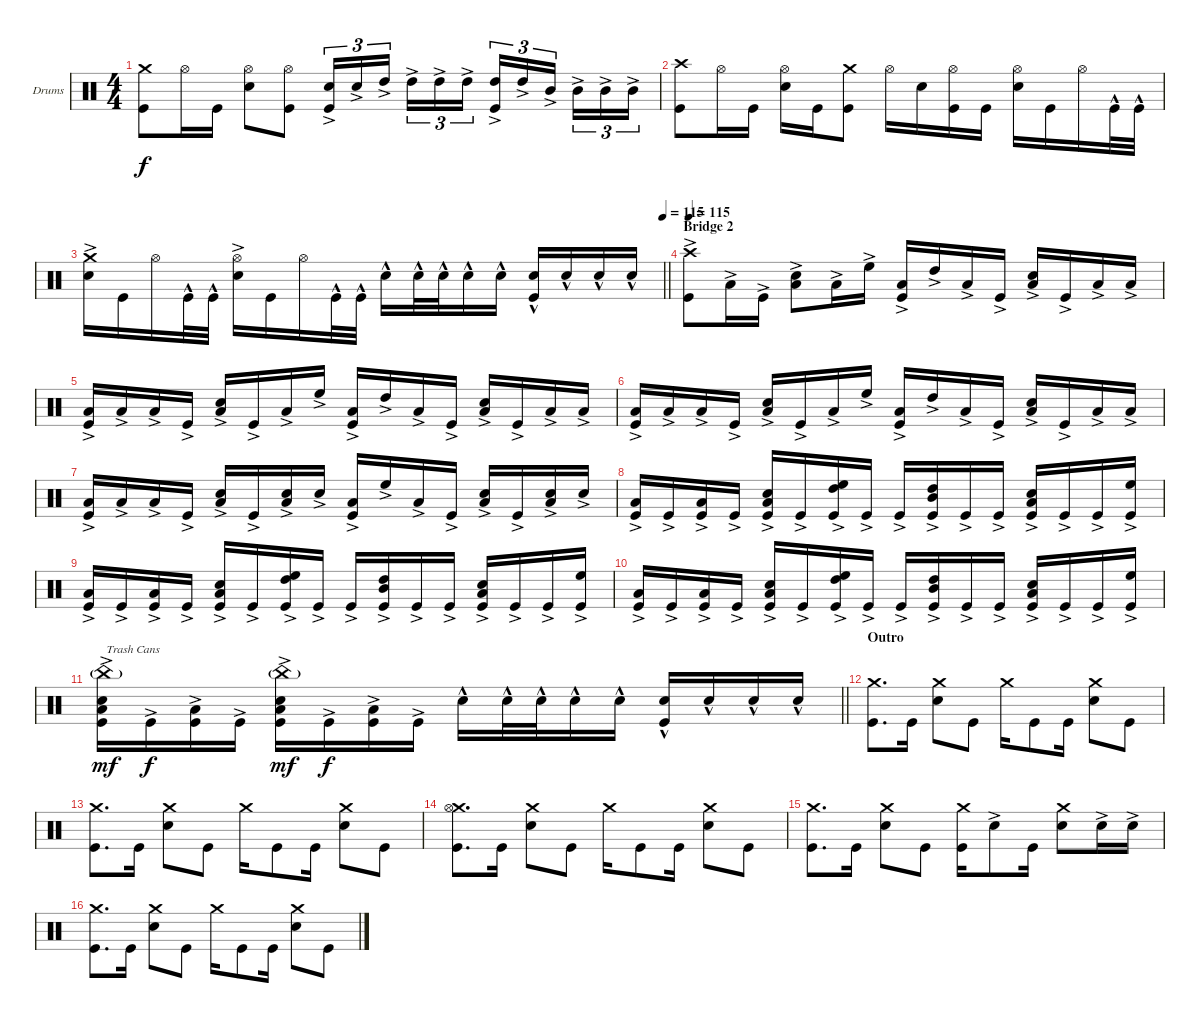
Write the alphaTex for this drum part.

\bracketExtendMode groupsimilarinstruments
\firstSystemTrackNameOrientation horizontal
\otherSystemsTrackNameOrientation horizontal
\track ("Drumkit" "Drums") {instrument percussion}
\staff {score}
\articulation defaults
\ts (4 4)
\tempo (105 hide)
\clef neutral
\ks c
("Crash medium (hit)" "Kick (hit)").8{dy f} "Hi-Hat (open)".16 "Kick (hit)".16 ("Hi-Hat (open)" "Snare (hit) 2").8 ("Hi-Hat (open)" "Kick (hit)").8 ("Snare (hit) 2"{ac} "Kick (hit)").16{tu (3 2)} "Snare (hit) 2"{ac}.16{tu (3 2)} "High Tom (hit)"{ac}.16{tu (3 2)} "High Tom (hit)"{ac}.16{tu (3 2)} "High Tom (hit)"{ac}.16{tu (3 2)} "High Tom (hit)"{ac}.16{tu (3 2)} ("High Tom (hit)"{ac} "Kick (hit)").16{tu (3 2)} "High Tom (hit)"{ac}.16{tu (3 2)} "Mid Tom (hit)"{ac}.16{tu (3 2)} "Mid Tom (hit)"{ac}.16{tu (3 2)} "Mid Tom (hit)"{ac}.16{tu (3 2)} "Mid Tom (hit)"{ac}.16{tu (3 2)} |
("Crash high (hit)" "Kick (hit)").8 "Hi-Hat (open)".16 "Kick (hit)".16 ("Hi-Hat (open)" "Snare (hit) 2").16 "Kick (hit)".16 ("Crash medium (hit)" "Kick (hit)").8 "Hi-Hat (open)".16 "Snare (hit) 2".16 ("Hi-Hat (open)" "Kick (hit)").16 "Kick (hit)".16 ("Hi-Hat (open)" "Snare (hit) 2").16 "Kick (hit)".16 "Hi-Hat (open)".16 "Kick (hit)"{hac}.32 "Kick (hit)"{hac}.32 |
\tempo (115 1)
\barLineRight lightlight
("Crash medium (hit)" "Snare (hit) 2"{ac}).16 "Kick (hit)".16 "Hi-Hat (open)".16 "Kick (hit)"{hac}.32 "Kick (hit)"{hac}.32 ("Hi-Hat (open)" "Snare (hit) 2"{ac}).16 "Kick (hit)".16 "Hi-Hat (open)".16 "Kick (hit)"{hac}.32 "Kick (hit)"{hac}.32 "Snare (hit) 2"{hac}.16 "Snare (hit) 2"{hac}.32 "Snare (hit) 2"{hac}.32 "Snare (hit) 2"{hac}.16 "Snare (hit) 2"{hac}.16 ("Snare (hit) 2"{hac} "Kick (hit)").16 "Snare (hit) 2"{hac}.16 "Snare (hit) 2"{hac}.16 "Snare (hit) 2"{hac}.16 |
\section ("" "Bridge 2")
\tempo 115
("Crash high (hit)"{ac} "Kick (hit)"{ac}).8 "Low Tom (hit)"{ac}.16 "Kick (hit)"{ac}.16 ("Snare (hit) 2"{ac} "Low Tom (hit)"{ac}).8 "Low Tom (hit)"{ac}.16 "High Floor Tom (hit)"{ac}.16 ("Low Tom (hit)"{ac} "Kick (hit)"{ac}).16 "High Tom (hit)"{ac}.16 "Low Tom (hit)"{ac}.16 "Kick (hit)"{ac}.16 ("Snare (hit) 2"{ac} "Low Tom (hit)"{ac}).16 "Kick (hit)"{ac}.16 "Low Tom (hit)"{ac}.16 "Low Tom (hit)"{ac}.16 |
("Low Tom (hit)"{ac} "Kick (hit)"{ac}).16 "Low Tom (hit)"{ac}.16 "Low Tom (hit)"{ac}.16 "Kick (hit)"{ac}.16 ("Snare (hit) 2"{ac} "Low Tom (hit)"{ac}).16 "Kick (hit)"{ac}.16 "Low Tom (hit)"{ac}.16 "High Floor Tom (hit)"{ac}.16 ("Low Tom (hit)"{ac} "Kick (hit)"{ac}).16 "High Tom (hit)"{ac}.16 "Low Tom (hit)"{ac}.16 "Kick (hit)"{ac}.16 ("Snare (hit) 2"{ac} "Low Tom (hit)"{ac}).16 "Kick (hit)"{ac}.16 "Low Tom (hit)"{ac}.16 "Low Tom (hit)"{ac}.16 |
("Low Tom (hit)"{ac} "Kick (hit)"{ac}).16 "Low Tom (hit)"{ac}.16 "Low Tom (hit)"{ac}.16 "Kick (hit)"{ac}.16 ("Snare (hit) 2"{ac} "Low Tom (hit)"{ac}).16 "Kick (hit)"{ac}.16 "Low Tom (hit)"{ac}.16 "High Floor Tom (hit)"{ac}.16 ("Low Tom (hit)"{ac} "Kick (hit)"{ac}).16 "High Tom (hit)"{ac}.16 "Low Tom (hit)"{ac}.16 "Kick (hit)"{ac}.16 ("Snare (hit) 2"{ac} "Low Tom (hit)"{ac}).16 "Kick (hit)"{ac}.16 "Low Tom (hit)"{ac}.16 "Low Tom (hit)"{ac}.16 |
("Low Tom (hit)"{ac} "Kick (hit)"{ac}).16 "Low Tom (hit)"{ac}.16 "Low Tom (hit)"{ac}.16 "Kick (hit)"{ac}.16 ("Snare (hit) 2"{ac} "Low Tom (hit)"{ac}).16 "Kick (hit)"{ac}.16 ("Snare (hit) 2"{ac} "Low Tom (hit)"{ac}).16 "Snare (hit) 2"{ac}.16 ("Low Tom (hit)"{ac} "Kick (hit)"{ac}).16 "High Floor Tom (hit)"{ac}.16 "Low Tom (hit)"{ac}.16 "Kick (hit)"{ac}.16 ("Snare (hit) 2"{ac} "Low Tom (hit)"{ac}).16 "Kick (hit)"{ac}.16 ("Snare (hit) 2"{ac} "Low Tom (hit)"{ac}).16 "Snare (hit) 2"{ac}.16 |
("Low Tom (hit)"{ac} "Kick (hit)"{ac}).16 "Kick (hit)"{ac}.16 ("Low Tom (hit)"{ac} "Kick (hit)"{ac}).16 "Kick (hit)"{ac}.16 ("Snare (hit) 2"{ac} "Low Tom (hit)"{ac} "Kick (hit)"{ac}).16 "Kick (hit)"{ac}.16 ("High Floor Tom (hit)"{ac} "High Tom (hit)"{ac} "Kick (hit)"{ac}).16 "Kick (hit)"{ac}.16 "Kick (hit)"{ac}.16 ("High Tom (hit)"{ac} "Mid Tom (hit)"{ac} "Kick (hit)"{ac}).16 "Kick (hit)"{ac}.16 "Kick (hit)"{ac}.16 ("Snare (hit) 2"{ac} "Low Tom (hit)"{ac} "Kick (hit)"{ac}).16 "Kick (hit)"{ac}.16 "Kick (hit)"{ac}.16 ("High Floor Tom (hit)"{ac} "Kick (hit)"{ac}).16 |
("Low Tom (hit)"{ac} "Kick (hit)"{ac}).16 "Kick (hit)"{ac}.16 ("Low Tom (hit)"{ac} "Kick (hit)"{ac}).16 "Kick (hit)"{ac}.16 ("Snare (hit) 2"{ac} "Low Tom (hit)"{ac} "Kick (hit)"{ac}).16 "Kick (hit)"{ac}.16 ("High Floor Tom (hit)"{ac} "High Tom (hit)"{ac} "Kick (hit)"{ac}).16 "Kick (hit)"{ac}.16 "Kick (hit)"{ac}.16 ("High Tom (hit)"{ac} "Mid Tom (hit)"{ac} "Kick (hit)"{ac}).16 "Kick (hit)"{ac}.16 "Kick (hit)"{ac}.16 ("Snare (hit) 2"{ac} "Low Tom (hit)"{ac} "Kick (hit)"{ac}).16 "Kick (hit)"{ac}.16 "Kick (hit)"{ac}.16 ("High Floor Tom (hit)"{ac} "Kick (hit)"{ac}).16 |
("Low Tom (hit)"{ac} "Kick (hit)"{ac}).16 "Kick (hit)"{ac}.16 ("Low Tom (hit)"{ac} "Kick (hit)"{ac}).16 "Kick (hit)"{ac}.16 ("Snare (hit) 2"{ac} "Low Tom (hit)"{ac} "Kick (hit)"{ac}).16 "Kick (hit)"{ac}.16 ("High Floor Tom (hit)"{ac} "High Tom (hit)"{ac} "Kick (hit)"{ac}).16 "Kick (hit)"{ac}.16 "Kick (hit)"{ac}.16 ("High Tom (hit)"{ac} "Mid Tom (hit)"{ac} "Kick (hit)"{ac}).16 "Kick (hit)"{ac}.16 "Kick (hit)"{ac}.16 ("Snare (hit) 2"{ac} "Low Tom (hit)"{ac} "Kick (hit)"{ac}).16 "Kick (hit)"{ac}.16 "Kick (hit)"{ac}.16 ("High Floor Tom (hit)"{ac} "Kick (hit)"{ac}).16 |
\barLineRight lightlight
("China (hit)"{g} "Snare (hit) 2"{ac} "Low Tom (hit)"{ac} "Kick (hit)"{ac}).16{txt "Trash Cans" dy mf} "Kick (hit)"{ac}.16{dy f} ("Low Tom (hit)"{ac} "Kick (hit)"{ac}).16 "Kick (hit)"{ac}.16 ("China (hit)"{g} "Snare (hit) 2"{ac} "Low Tom (hit)"{ac} "Kick (hit)"{ac}).16{dy mf} "Kick (hit)"{ac}.16{dy f} ("Low Tom (hit)"{ac} "Kick (hit)"{ac}).16 "Kick (hit)"{ac}.16 "Snare (hit) 2"{hac}.16 "Snare (hit) 2"{hac}.32 "Snare (hit) 2"{hac}.32 "Snare (hit) 2"{hac}.16 "Snare (hit) 2"{hac}.16 ("Snare (hit) 2"{hac} "Kick (hit)"{hac}).16 "Snare (hit) 2"{hac}.16 "Snare (hit) 2"{hac}.16 "Snare (hit) 2"{hac}.16 |
\section ("" "Outro")
("Crash medium (hit)" "Kick (hit)").8{d} "Kick (hit)".16 ("Crash medium (hit)" "Snare (hit) 2").8 "Kick (hit)".8 "Crash medium (hit)".16 "Kick (hit)".8 "Kick (hit)".16 ("Crash medium (hit)" "Snare (hit) 2").8 "Kick (hit)".8 |
("Crash medium (hit)" "Kick (hit)").8{d} "Kick (hit)".16 ("Crash medium (hit)" "Snare (hit) 2").8 "Kick (hit)".8 "Crash medium (hit)".16 "Kick (hit)".8 "Kick (hit)".16 ("Crash medium (hit)" "Snare (hit) 2").8 "Kick (hit)".8 |
("Crash medium (hit)" "Hi-Hat (open)" "Kick (hit)").8{d} "Kick (hit)".16 ("Crash medium (hit)" "Snare (hit) 2").8 "Kick (hit)".8 "Crash medium (hit)".16 "Kick (hit)".8 "Kick (hit)".16 ("Crash medium (hit)" "Snare (hit) 2").8 "Kick (hit)".8 |
("Crash medium (hit)" "Kick (hit)").8{d} "Kick (hit)".16 ("Crash medium (hit)" "Snare (hit) 2").8 "Kick (hit)".8 ("Crash medium (hit)" "Kick (hit)").16 "Snare (hit) 2"{ac}.8 "Kick (hit)".16 ("Crash medium (hit)" "Snare (hit) 2").8 "Snare (hit) 2"{ac}.16 "Snare (hit) 2"{ac}.16 |
("Crash medium (hit)" "Kick (hit)").8{d} "Kick (hit)".16 ("Crash medium (hit)" "Snare (hit) 2").8 "Kick (hit)".8 "Crash medium (hit)".16 "Kick (hit)".8 "Kick (hit)".16 ("Crash medium (hit)" "Snare (hit) 2").8 "Kick (hit)".8
